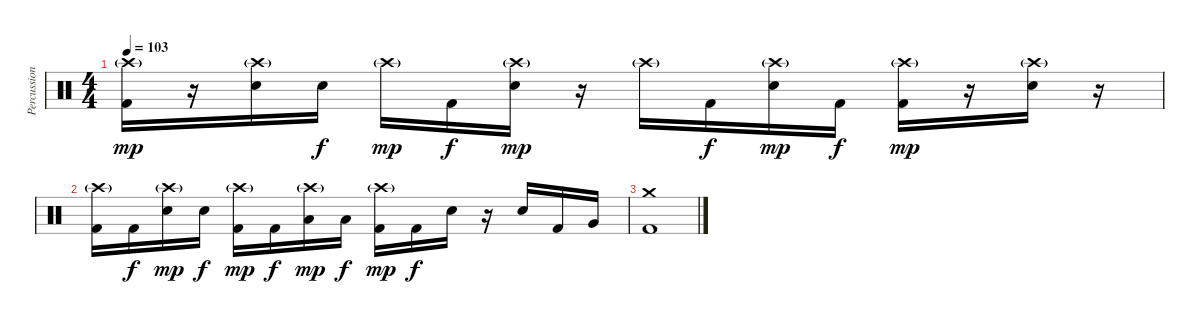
\track ("Percussion" "Percussion") {instrument percussion}
\staff {score}
\articulation defaults
\ts (4 4)
\tempo 103
\clef neutral
\ks c
("Crash high (hit)"{g} "Kick (hit) 2").16{dy mp} r.16 ("Crash high (hit)"{g} "Electric Snare (hit)").16 "Electric Snare (hit)".16{dy f} "Crash high (hit)"{g}.16{dy mp} "Kick (hit) 2".16{dy f} ("Crash high (hit)"{g} "Electric Snare (hit)").16{dy mp} r.16 "Crash high (hit)"{g}.16 "Kick (hit) 2".16{dy f} ("Crash high (hit)"{g} "Electric Snare (hit)").16{dy mp} "Kick (hit) 2".16{dy f} ("Crash high (hit)"{g} "Kick (hit) 2").16{dy mp} r.16 ("Crash high (hit)"{g} "Electric Snare (hit)").16 r.16 |
("Crash high (hit)"{g} "Kick (hit) 2").16 "Kick (hit) 2".16{dy f} ("Crash high (hit)"{g} "Electric Snare (hit)").16{dy mp} "Electric Snare (hit)".16{dy f} ("Crash high (hit)"{g} "Kick (hit) 2").16{dy mp} "Kick (hit) 2".16{dy f} ("Crash high (hit)"{g} "Low Tom (hit)").16{dy mp} "Low Tom (hit)".16{dy f} ("Crash high (hit)"{g} "Kick (hit) 2").16{dy mp} "Kick (hit) 2".16{dy f} "Electric Snare (hit)".16 r.16 "Electric Snare (hit)".16 "Kick (hit) 2".16 "Very Low Tom (hit)".16 |
("Crash medium (hit)" "Kick (hit) 2").1
